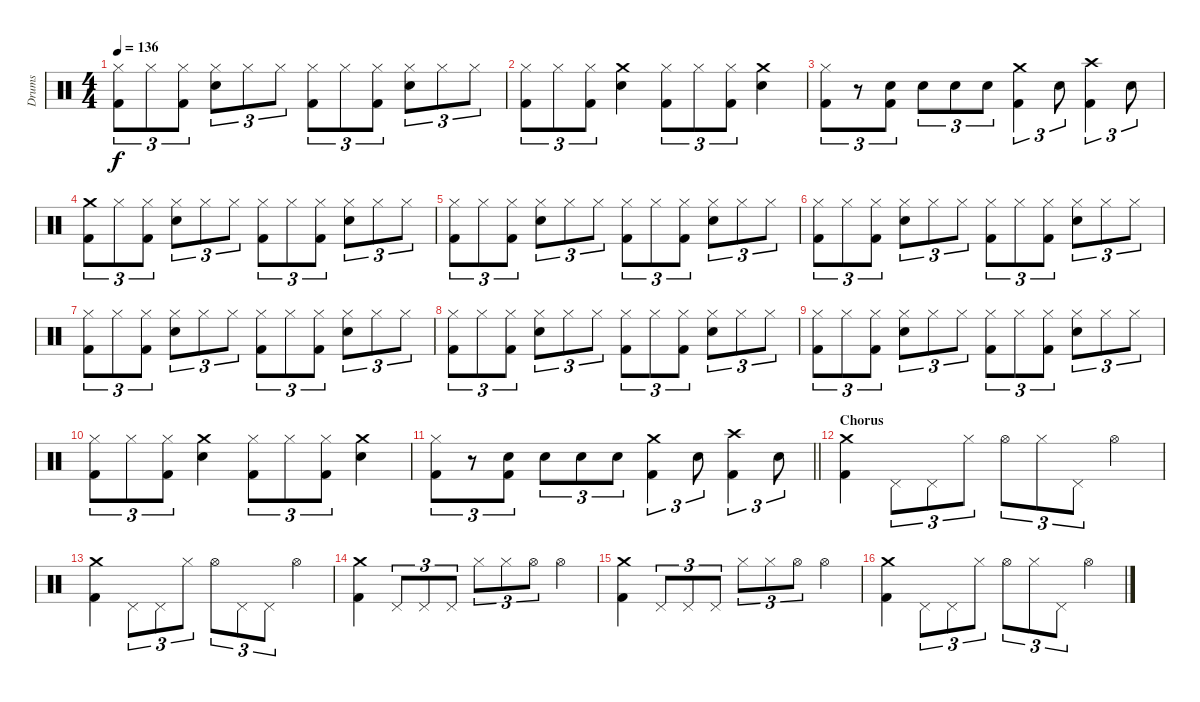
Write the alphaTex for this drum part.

\track ("Drums" "Drums") {instrument percussion}
\staff {score}
\articulation defaults
\ts (4 4)
\tempo 136
\clef neutral
\ks c
("Hi-Hat (closed)" "Kick (hit) 2").8{tu (3 2) dy f} "Hi-Hat (closed)".8{tu (3 2)} ("Hi-Hat (closed)" "Kick (hit) 2").8{tu (3 2)} ("Hi-Hat (closed)" "Snare (hit) 2").8{tu (3 2)} "Hi-Hat (closed)".8{tu (3 2)} "Hi-Hat (closed)".8{tu (3 2)} ("Hi-Hat (closed)" "Kick (hit) 2").8{tu (3 2)} "Hi-Hat (closed)".8{tu (3 2)} ("Hi-Hat (closed)" "Kick (hit) 2").8{tu (3 2)} ("Hi-Hat (closed)" "Snare (hit) 2").8{tu (3 2)} "Hi-Hat (closed)".8{tu (3 2)} "Hi-Hat (closed)".8{tu (3 2)} |
("Hi-Hat (closed)" "Kick (hit) 2").8{tu (3 2)} "Hi-Hat (closed)".8{tu (3 2)} ("Hi-Hat (closed)" "Kick (hit) 2").8{tu (3 2)} ("Crash medium (hit)" "Snare (hit) 2").4 ("Hi-Hat (closed)" "Kick (hit) 2").8{tu (3 2)} "Hi-Hat (closed)".8{tu (3 2)} ("Hi-Hat (closed)" "Kick (hit) 2").8{tu (3 2)} ("Crash medium (hit)" "Snare (hit) 2").4 |
("Hi-Hat (closed)" "Kick (hit) 2").8{tu (3 2)} r.8{tu (3 2)} ("Snare (hit) 2" "Kick (hit) 2").8{tu (3 2)} "Snare (hit) 2".8{tu (3 2)} "Snare (hit) 2".8{tu (3 2)} "Snare (hit) 2".8{tu (3 2)} ("Crash medium (hit)" "Kick (hit) 2").4{tu (3 2)} "Snare (hit) 2".8{tu (3 2)} ("Crash high (hit)" "Kick (hit) 2").4{tu (3 2)} "Snare (hit) 2".8{tu (3 2)} |
("Crash medium (hit)" "Kick (hit) 2").8{tu (3 2)} "Hi-Hat (closed)".8{tu (3 2)} ("Hi-Hat (closed)" "Kick (hit) 2").8{tu (3 2)} ("Hi-Hat (closed)" "Snare (hit) 2").8{tu (3 2)} "Hi-Hat (closed)".8{tu (3 2)} "Hi-Hat (closed)".8{tu (3 2)} ("Hi-Hat (closed)" "Kick (hit) 2").8{tu (3 2)} "Hi-Hat (closed)".8{tu (3 2)} ("Hi-Hat (closed)" "Kick (hit) 2").8{tu (3 2)} ("Hi-Hat (closed)" "Snare (hit) 2").8{tu (3 2)} "Hi-Hat (closed)".8{tu (3 2)} "Hi-Hat (closed)".8{tu (3 2)} |
("Hi-Hat (closed)" "Kick (hit) 2").8{tu (3 2)} "Hi-Hat (closed)".8{tu (3 2)} ("Hi-Hat (closed)" "Kick (hit) 2").8{tu (3 2)} ("Hi-Hat (closed)" "Snare (hit) 2").8{tu (3 2)} "Hi-Hat (closed)".8{tu (3 2)} "Hi-Hat (closed)".8{tu (3 2)} ("Hi-Hat (closed)" "Kick (hit) 2").8{tu (3 2)} "Hi-Hat (closed)".8{tu (3 2)} ("Hi-Hat (closed)" "Kick (hit) 2").8{tu (3 2)} ("Hi-Hat (closed)" "Snare (hit) 2").8{tu (3 2)} "Hi-Hat (closed)".8{tu (3 2)} "Hi-Hat (closed)".8{tu (3 2)} |
("Hi-Hat (closed)" "Kick (hit) 2").8{tu (3 2)} "Hi-Hat (closed)".8{tu (3 2)} ("Hi-Hat (closed)" "Kick (hit) 2").8{tu (3 2)} ("Hi-Hat (closed)" "Snare (hit) 2").8{tu (3 2)} "Hi-Hat (closed)".8{tu (3 2)} "Hi-Hat (closed)".8{tu (3 2)} ("Hi-Hat (closed)" "Kick (hit) 2").8{tu (3 2)} "Hi-Hat (closed)".8{tu (3 2)} ("Hi-Hat (closed)" "Kick (hit) 2").8{tu (3 2)} ("Hi-Hat (closed)" "Snare (hit) 2").8{tu (3 2)} "Hi-Hat (closed)".8{tu (3 2)} "Hi-Hat (closed)".8{tu (3 2)} |
("Hi-Hat (closed)" "Kick (hit) 2").8{tu (3 2)} "Hi-Hat (closed)".8{tu (3 2)} ("Hi-Hat (closed)" "Kick (hit) 2").8{tu (3 2)} ("Hi-Hat (closed)" "Snare (hit) 2").8{tu (3 2)} "Hi-Hat (closed)".8{tu (3 2)} "Hi-Hat (closed)".8{tu (3 2)} ("Hi-Hat (closed)" "Kick (hit) 2").8{tu (3 2)} "Hi-Hat (closed)".8{tu (3 2)} ("Hi-Hat (closed)" "Kick (hit) 2").8{tu (3 2)} ("Hi-Hat (closed)" "Snare (hit) 2").8{tu (3 2)} "Hi-Hat (closed)".8{tu (3 2)} "Hi-Hat (closed)".8{tu (3 2)} |
("Hi-Hat (closed)" "Kick (hit) 2").8{tu (3 2)} "Hi-Hat (closed)".8{tu (3 2)} ("Hi-Hat (closed)" "Kick (hit) 2").8{tu (3 2)} ("Hi-Hat (closed)" "Snare (hit) 2").8{tu (3 2)} "Hi-Hat (closed)".8{tu (3 2)} "Hi-Hat (closed)".8{tu (3 2)} ("Hi-Hat (closed)" "Kick (hit) 2").8{tu (3 2)} "Hi-Hat (closed)".8{tu (3 2)} ("Hi-Hat (closed)" "Kick (hit) 2").8{tu (3 2)} ("Hi-Hat (closed)" "Snare (hit) 2").8{tu (3 2)} "Hi-Hat (closed)".8{tu (3 2)} "Hi-Hat (closed)".8{tu (3 2)} |
("Hi-Hat (closed)" "Kick (hit) 2").8{tu (3 2)} "Hi-Hat (closed)".8{tu (3 2)} ("Hi-Hat (closed)" "Kick (hit) 2").8{tu (3 2)} ("Hi-Hat (closed)" "Snare (hit) 2").8{tu (3 2)} "Hi-Hat (closed)".8{tu (3 2)} "Hi-Hat (closed)".8{tu (3 2)} ("Hi-Hat (closed)" "Kick (hit) 2").8{tu (3 2)} "Hi-Hat (closed)".8{tu (3 2)} ("Hi-Hat (closed)" "Kick (hit) 2").8{tu (3 2)} ("Hi-Hat (closed)" "Snare (hit) 2").8{tu (3 2)} "Hi-Hat (closed)".8{tu (3 2)} "Hi-Hat (closed)".8{tu (3 2)} |
("Hi-Hat (closed)" "Kick (hit) 2").8{tu (3 2)} "Hi-Hat (closed)".8{tu (3 2)} ("Hi-Hat (closed)" "Kick (hit) 2").8{tu (3 2)} ("Crash medium (hit)" "Snare (hit) 2").4 ("Hi-Hat (closed)" "Kick (hit) 2").8{tu (3 2)} "Hi-Hat (closed)".8{tu (3 2)} ("Hi-Hat (closed)" "Kick (hit) 2").8{tu (3 2)} ("Crash medium (hit)" "Snare (hit) 2").4 |
\barLineRight lightlight
("Hi-Hat (closed)" "Kick (hit) 2").8{tu (3 2)} r.8{tu (3 2)} ("Snare (hit) 2" "Kick (hit) 2").8{tu (3 2)} "Snare (hit) 2".8{tu (3 2)} "Snare (hit) 2".8{tu (3 2)} "Snare (hit) 2".8{tu (3 2)} ("Crash medium (hit)" "Kick (hit) 2").4{tu (3 2)} "Snare (hit) 2".8{tu (3 2)} ("Crash high (hit)" "Kick (hit) 2").4{tu (3 2)} "Snare (hit) 2".8{tu (3 2)} |
\section ("" "Chorus")
("Crash medium (hit)" "Kick (hit) 2").4 "Pedal Hi-Hat (hit)".8{tu (3 2)} "Pedal Hi-Hat (hit)".8{tu (3 2)} "Hi-Hat (closed)".8{tu (3 2)} "Hi-Hat (open)".8{tu (3 2)} "Hi-Hat (closed)".8{tu (3 2)} "Pedal Hi-Hat (hit)".8{tu (3 2)} "Hi-Hat (open)".4 |
("Crash medium (hit)" "Kick (hit) 2").4 "Pedal Hi-Hat (hit)".8{tu (3 2)} "Pedal Hi-Hat (hit)".8{tu (3 2)} "Hi-Hat (closed)".8{tu (3 2)} "Hi-Hat (open)".8{tu (3 2)} "Pedal Hi-Hat (hit)".8{tu (3 2)} "Pedal Hi-Hat (hit)".8{tu (3 2)} "Hi-Hat (open)".4 |
("Crash medium (hit)" "Kick (hit) 2").4 "Pedal Hi-Hat (hit)".8{tu (3 2)} "Pedal Hi-Hat (hit)".8{tu (3 2)} "Pedal Hi-Hat (hit)".8{tu (3 2)} "Hi-Hat (closed)".8{tu (3 2)} "Hi-Hat (closed)".8{tu (3 2)} "Hi-Hat (open)".8{tu (3 2)} "Hi-Hat (open)".4 |
("Crash medium (hit)" "Kick (hit) 2").4 "Pedal Hi-Hat (hit)".8{tu (3 2)} "Pedal Hi-Hat (hit)".8{tu (3 2)} "Pedal Hi-Hat (hit)".8{tu (3 2)} "Hi-Hat (closed)".8{tu (3 2)} "Hi-Hat (closed)".8{tu (3 2)} "Hi-Hat (open)".8{tu (3 2)} "Hi-Hat (open)".4 |
("Crash medium (hit)" "Kick (hit) 2").4 "Pedal Hi-Hat (hit)".8{tu (3 2)} "Pedal Hi-Hat (hit)".8{tu (3 2)} "Hi-Hat (closed)".8{tu (3 2)} "Hi-Hat (open)".8{tu (3 2)} "Hi-Hat (closed)".8{tu (3 2)} "Pedal Hi-Hat (hit)".8{tu (3 2)} "Hi-Hat (open)".4
